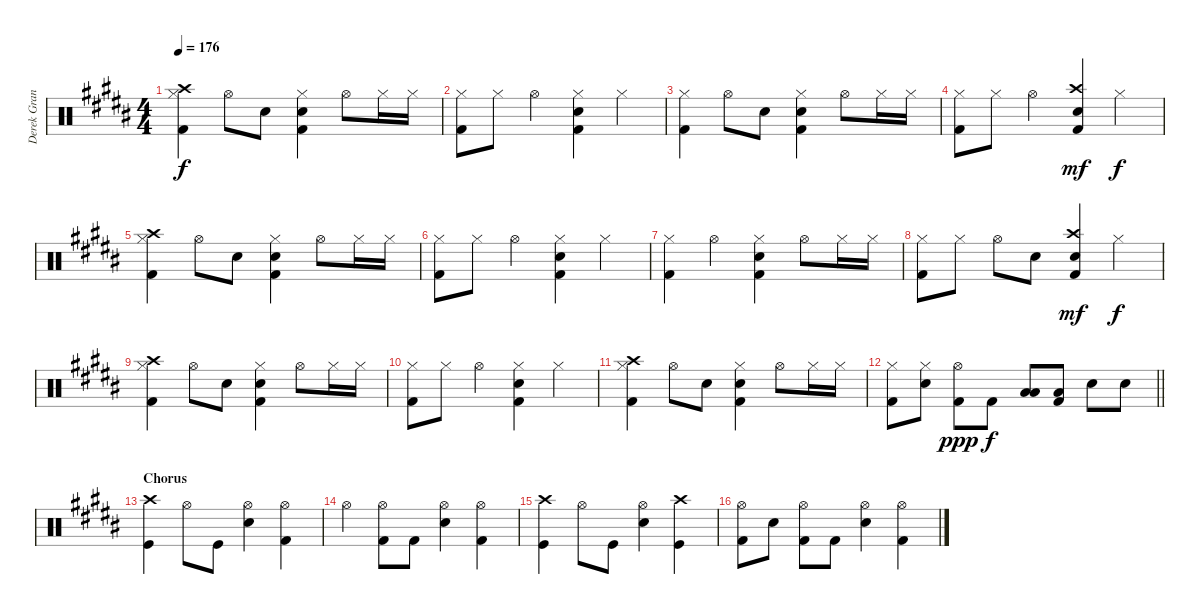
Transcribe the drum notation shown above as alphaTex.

\track ("Derek Grant - Drums" "Derek Gran") {instrument percussion}
\staff {score}
\articulation defaults
\ts (4 4)
\tempo 176
\clef neutral
\ks b
("Hi-Hat (closed)" "Kick (hit) 2" "Crash high (hit)").4{dy f} "Hi-Hat (open)".8 "Snare (hit) 2".8 ("Hi-Hat (closed)" "Snare (hit) 2" "Kick (hit) 2").4 "Hi-Hat (open)".8 "Hi-Hat (closed)".16 "Hi-Hat (closed)".16 |
("Hi-Hat (closed)" "Kick (hit) 2").8 "Hi-Hat (closed)".8 "Hi-Hat (open)".4 ("Hi-Hat (closed)" "Snare (hit) 2" "Kick (hit) 2").4 "Hi-Hat (closed)".4 |
("Hi-Hat (closed)" "Kick (hit) 2").4 "Hi-Hat (open)".8 "Snare (hit) 2".8 ("Hi-Hat (closed)" "Snare (hit) 2" "Kick (hit) 2").4 "Hi-Hat (open)".8 "Hi-Hat (closed)".16 "Hi-Hat (closed)".16 |
("Hi-Hat (closed)" "Kick (hit) 2").8 "Hi-Hat (closed)".8 "Hi-Hat (open)".4 ("Crash high (hit)" "Snare (hit) 2" "Kick (hit) 2").4{dy mf} "Hi-Hat (closed)".4{dy f} |
("Hi-Hat (closed)" "Kick (hit) 2" "Crash high (hit)").4 "Hi-Hat (open)".8 "Snare (hit) 2".8 ("Hi-Hat (closed)" "Snare (hit) 2" "Kick (hit) 2").4 "Hi-Hat (open)".8 "Hi-Hat (closed)".16 "Hi-Hat (closed)".16 |
("Hi-Hat (closed)" "Kick (hit) 2").8 "Hi-Hat (closed)".8 "Hi-Hat (open)".4 ("Hi-Hat (closed)" "Snare (hit) 2" "Kick (hit) 2").4 "Hi-Hat (closed)".4 |
("Hi-Hat (closed)" "Kick (hit) 2").4 "Hi-Hat (open)".4 ("Hi-Hat (closed)" "Snare (hit) 2" "Kick (hit) 2").4 "Hi-Hat (open)".8 "Hi-Hat (closed)".16 "Hi-Hat (closed)".16 |
("Hi-Hat (closed)" "Kick (hit) 2").8 "Hi-Hat (closed)".8 "Hi-Hat (open)".8 "Snare (hit) 2".8 ("Crash high (hit)" "Snare (hit) 2" "Kick (hit) 2").4{dy mf} "Hi-Hat (closed)".4{dy f} |
("Hi-Hat (closed)" "Kick (hit) 2" "Crash high (hit)").4 "Hi-Hat (open)".8 "Snare (hit) 2".8 ("Hi-Hat (closed)" "Snare (hit) 2" "Kick (hit) 2").4 "Hi-Hat (open)".8 "Hi-Hat (closed)".16 "Hi-Hat (closed)".16 |
("Hi-Hat (closed)" "Kick (hit) 2").8 "Hi-Hat (closed)".8 "Hi-Hat (open)".4 ("Hi-Hat (closed)" "Snare (hit) 2" "Kick (hit) 2").4 "Hi-Hat (closed)".4 |
("Hi-Hat (closed)" "Kick (hit) 2" "Crash high (hit)").4 "Hi-Hat (open)".8 "Snare (hit) 2".8 ("Hi-Hat (closed)" "Snare (hit) 2" "Kick (hit) 2").4 "Hi-Hat (open)".8 "Hi-Hat (closed)".16 "Hi-Hat (closed)".16 |
\barLineRight lightlight
("Hi-Hat (closed)" "Kick (hit) 2").8 ("Hi-Hat (closed)" "Snare (hit) 2").8 ("Hi-Hat (open)" "Kick (hit) 2").8{dy ppp} "Kick (hit) 2".8{dy f} ("Low Tom (hit)" "Low Floor Tom (hit)").8 ("Low Floor Tom (hit)" "Kick (hit) 2").8 "Electric Snare (hit)".8 "Electric Snare (hit)".8 |
\section ("" "Chorus")
("Kick (hit)" "Crash high (hit)").4 "Hi-Hat (open)".8 "Kick (hit)".8 ("Snare (hit) 2" "Hi-Hat (open)").4 ("Kick (hit) 2" "Hi-Hat (open)").4 |
"Hi-Hat (open)".4 ("Kick (hit) 2" "Hi-Hat (open)").8 "Kick (hit) 2".8 ("Snare (hit) 2" "Hi-Hat (open)").4 ("Kick (hit) 2" "Hi-Hat (open)").4 |
("Kick (hit)" "Crash high (hit)").4 "Hi-Hat (open)".8 "Kick (hit)".8 ("Snare (hit) 2" "Hi-Hat (open)").4 ("Kick (hit)" "Crash high (hit)").4 |
("Kick (hit) 2" "Hi-Hat (open)").8 "Snare (hit) 2".8 ("Kick (hit) 2" "Hi-Hat (open)").8 "Kick (hit) 2".8 ("Snare (hit) 2" "Hi-Hat (open)").4 ("Kick (hit) 2" "Hi-Hat (open)").4
